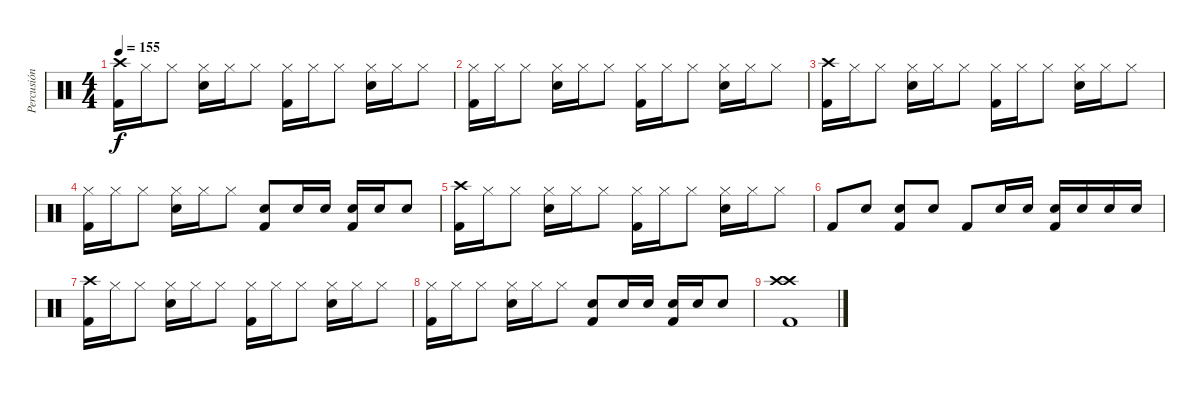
\track ("Percusión" "Percusión") {instrument percussion}
\staff {score}
\articulation defaults
\ts (4 4)
\tempo 155
\clef neutral
\ks c
("Crash high (hit)" "Kick (hit) 2").16{dy f} "Hi-Hat (closed)".16 "Hi-Hat (closed)".8 ("Hi-Hat (closed)" "Electric Snare (hit)").16 "Hi-Hat (closed)".16 "Hi-Hat (closed)".8 ("Hi-Hat (closed)" "Kick (hit) 2").16 "Hi-Hat (closed)".16 "Hi-Hat (closed)".8 ("Hi-Hat (closed)" "Electric Snare (hit)").16 "Hi-Hat (closed)".16 "Hi-Hat (closed)".8 |
("Hi-Hat (closed)" "Kick (hit) 2").16 "Hi-Hat (closed)".16 "Hi-Hat (closed)".8 ("Hi-Hat (closed)" "Electric Snare (hit)").16 "Hi-Hat (closed)".16 "Hi-Hat (closed)".8 ("Hi-Hat (closed)" "Kick (hit) 2").16 "Hi-Hat (closed)".16 "Hi-Hat (closed)".8 ("Hi-Hat (closed)" "Electric Snare (hit)").16 "Hi-Hat (closed)".16 "Hi-Hat (closed)".8 |
("Crash high (hit)" "Kick (hit) 2").16 "Hi-Hat (closed)".16 "Hi-Hat (closed)".8 ("Hi-Hat (closed)" "Electric Snare (hit)").16 "Hi-Hat (closed)".16 "Hi-Hat (closed)".8 ("Hi-Hat (closed)" "Kick (hit) 2").16 "Hi-Hat (closed)".16 "Hi-Hat (closed)".8 ("Hi-Hat (closed)" "Electric Snare (hit)").16 "Hi-Hat (closed)".16 "Hi-Hat (closed)".8 |
("Hi-Hat (closed)" "Kick (hit) 2").16 "Hi-Hat (closed)".16 "Hi-Hat (closed)".8 ("Hi-Hat (closed)" "Electric Snare (hit)").16 "Hi-Hat (closed)".16 "Hi-Hat (closed)".8 ("Electric Snare (hit)" "Kick (hit) 2").8 "Electric Snare (hit)".16 "Electric Snare (hit)".16 ("Electric Snare (hit)" "Kick (hit) 2").16 "Electric Snare (hit)".16 "Electric Snare (hit)".8 |
("Crash high (hit)" "Kick (hit) 2").16 "Hi-Hat (closed)".16 "Hi-Hat (closed)".8 ("Hi-Hat (closed)" "Electric Snare (hit)").16 "Hi-Hat (closed)".16 "Hi-Hat (closed)".8 ("Hi-Hat (closed)" "Kick (hit) 2").16 "Hi-Hat (closed)".16 "Hi-Hat (closed)".8 ("Hi-Hat (closed)" "Electric Snare (hit)").16 "Hi-Hat (closed)".16 "Hi-Hat (closed)".8 |
"Kick (hit) 2".8 "Electric Snare (hit)".8 ("Electric Snare (hit)" "Kick (hit) 2").8 "Electric Snare (hit)".8 "Kick (hit) 2".8 "Electric Snare (hit)".16 "Electric Snare (hit)".16 ("Electric Snare (hit)" "Kick (hit) 2").16 "Electric Snare (hit)".16 "Electric Snare (hit)".16 "Electric Snare (hit)".16 |
("Crash high (hit)" "Kick (hit) 2").16 "Hi-Hat (closed)".16 "Hi-Hat (closed)".8 ("Hi-Hat (closed)" "Electric Snare (hit)").16 "Hi-Hat (closed)".16 "Hi-Hat (closed)".8 ("Hi-Hat (closed)" "Kick (hit) 2").16 "Hi-Hat (closed)".16 "Hi-Hat (closed)".8 ("Hi-Hat (closed)" "Electric Snare (hit)").16 "Hi-Hat (closed)".16 "Hi-Hat (closed)".8 |
("Hi-Hat (closed)" "Kick (hit) 2").16 "Hi-Hat (closed)".16 "Hi-Hat (closed)".8 ("Hi-Hat (closed)" "Electric Snare (hit)").16 "Hi-Hat (closed)".16 "Hi-Hat (closed)".8 ("Electric Snare (hit)" "Kick (hit) 2").8 "Electric Snare (hit)".16 "Electric Snare (hit)".16 ("Electric Snare (hit)" "Kick (hit) 2").16 "Electric Snare (hit)".16 "Electric Snare (hit)".8 |
("Crash high (hit)" "Crash high (hit)" "Kick (hit) 2").1
